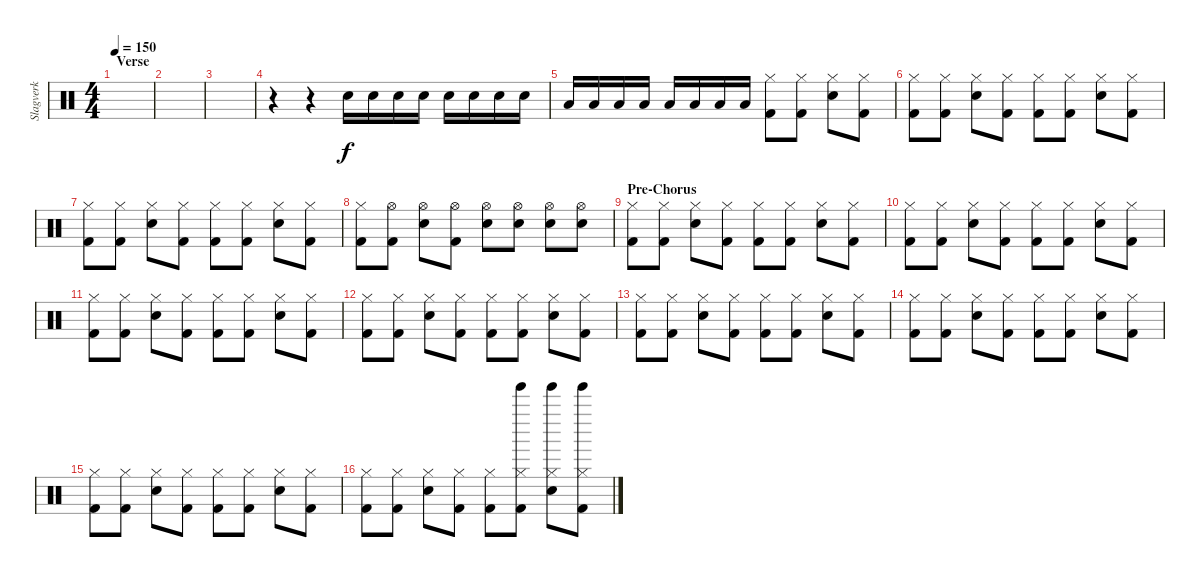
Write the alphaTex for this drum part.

\track ("Slagverk" "Slagverk") {instrument percussion}
\staff {score}
\articulation defaults
\ts (4 4)
\section ("" "Verse")
\tempo 150
\clef neutral
\ks c
|
|
|
r.4 r.4 "Electric Snare (hit)".16 "Electric Snare (hit)".16 "Electric Snare (hit)".16 "Electric Snare (hit)".16 "Electric Snare (hit)".16 "Electric Snare (hit)".16 "Electric Snare (hit)".16 "Electric Snare (hit)".16 |
"Low Tom (hit)".16 "Low Tom (hit)".16 "Low Tom (hit)".16 "Low Tom (hit)".16 "Low Tom (hit)".16 "Low Tom (hit)".16 "Low Tom (hit)".16 "Low Tom (hit)".16 ("Hi-Hat (closed)" "Kick (hit) 2").8 ("Hi-Hat (closed)" "Kick (hit) 2").8 ("Hi-Hat (closed)" "Electric Snare (hit)").8 ("Hi-Hat (closed)" "Kick (hit) 2").8 |
("Hi-Hat (closed)" "Kick (hit) 2").8 ("Hi-Hat (closed)" "Kick (hit) 2").8 ("Hi-Hat (closed)" "Electric Snare (hit)").8 ("Hi-Hat (closed)" "Kick (hit) 2").8 ("Hi-Hat (closed)" "Kick (hit) 2").8 ("Hi-Hat (closed)" "Kick (hit) 2").8 ("Hi-Hat (closed)" "Electric Snare (hit)").8 ("Hi-Hat (closed)" "Kick (hit) 2").8 |
("Hi-Hat (closed)" "Kick (hit) 2").8 ("Hi-Hat (closed)" "Kick (hit) 2").8 ("Hi-Hat (closed)" "Electric Snare (hit)").8 ("Hi-Hat (closed)" "Kick (hit) 2").8 ("Hi-Hat (closed)" "Kick (hit) 2").8 ("Hi-Hat (closed)" "Kick (hit) 2").8 ("Hi-Hat (closed)" "Electric Snare (hit)").8 ("Hi-Hat (closed)" "Kick (hit) 2").8 |
("Hi-Hat (closed)" "Kick (hit) 2").8 ("Hi-Hat (open)" "Kick (hit) 2").8 ("Hi-Hat (open)" "Electric Snare (hit)").8 ("Hi-Hat (open)" "Kick (hit) 2").8 ("Hi-Hat (open)" "Electric Snare (hit)").8 ("Hi-Hat (open)" "Electric Snare (hit)").8 ("Hi-Hat (open)" "Electric Snare (hit)").8 ("Hi-Hat (open)" "Electric Snare (hit)").8 |
\section ("" "Pre-Chorus")
("Hi-Hat (closed)" "Kick (hit) 2").8 ("Hi-Hat (closed)" "Kick (hit) 2").8 ("Hi-Hat (closed)" "Electric Snare (hit)").8 ("Hi-Hat (closed)" "Kick (hit) 2").8 ("Hi-Hat (closed)" "Kick (hit) 2").8 ("Hi-Hat (closed)" "Kick (hit) 2").8 ("Hi-Hat (closed)" "Electric Snare (hit)").8 ("Hi-Hat (closed)" "Kick (hit) 2").8 |
("Hi-Hat (closed)" "Kick (hit) 2").8 ("Hi-Hat (closed)" "Kick (hit) 2").8 ("Hi-Hat (closed)" "Electric Snare (hit)").8 ("Hi-Hat (closed)" "Kick (hit) 2").8 ("Hi-Hat (closed)" "Kick (hit) 2").8 ("Hi-Hat (closed)" "Kick (hit) 2").8 ("Hi-Hat (closed)" "Electric Snare (hit)").8 ("Hi-Hat (closed)" "Kick (hit) 2").8 |
("Hi-Hat (closed)" "Kick (hit) 2").8 ("Hi-Hat (closed)" "Kick (hit) 2").8 ("Hi-Hat (closed)" "Electric Snare (hit)").8 ("Hi-Hat (closed)" "Kick (hit) 2").8 ("Hi-Hat (closed)" "Kick (hit) 2").8 ("Hi-Hat (closed)" "Kick (hit) 2").8 ("Hi-Hat (closed)" "Electric Snare (hit)").8 ("Hi-Hat (closed)" "Kick (hit) 2").8 |
("Hi-Hat (closed)" "Kick (hit) 2").8 ("Hi-Hat (closed)" "Kick (hit) 2").8 ("Hi-Hat (closed)" "Electric Snare (hit)").8 ("Hi-Hat (closed)" "Kick (hit) 2").8 ("Hi-Hat (closed)" "Kick (hit) 2").8 ("Hi-Hat (closed)" "Kick (hit) 2").8 ("Hi-Hat (closed)" "Electric Snare (hit)").8 ("Hi-Hat (closed)" "Kick (hit) 2").8 |
("Hi-Hat (closed)" "Kick (hit) 2").8 ("Hi-Hat (closed)" "Kick (hit) 2").8 ("Hi-Hat (closed)" "Electric Snare (hit)").8 ("Hi-Hat (closed)" "Kick (hit) 2").8 ("Hi-Hat (closed)" "Kick (hit) 2").8 ("Hi-Hat (closed)" "Kick (hit) 2").8 ("Hi-Hat (closed)" "Electric Snare (hit)").8 ("Hi-Hat (closed)" "Kick (hit) 2").8 |
("Hi-Hat (closed)" "Kick (hit) 2").8 ("Hi-Hat (closed)" "Kick (hit) 2").8 ("Hi-Hat (closed)" "Electric Snare (hit)").8 ("Hi-Hat (closed)" "Kick (hit) 2").8 ("Hi-Hat (closed)" "Kick (hit) 2").8 ("Hi-Hat (closed)" "Kick (hit) 2").8 ("Hi-Hat (closed)" "Electric Snare (hit)").8 ("Hi-Hat (closed)" "Kick (hit) 2").8 |
("Hi-Hat (closed)" "Kick (hit) 2").8 ("Hi-Hat (closed)" "Kick (hit) 2").8 ("Hi-Hat (closed)" "Electric Snare (hit)").8 ("Hi-Hat (closed)" "Kick (hit) 2").8 ("Hi-Hat (closed)" "Kick (hit) 2").8 ("Hi-Hat (closed)" "Kick (hit) 2").8 ("Hi-Hat (closed)" "Electric Snare (hit)").8 ("Hi-Hat (closed)" "Kick (hit) 2").8 |
("Hi-Hat (closed)" "Kick (hit) 2").8 ("Hi-Hat (closed)" "Kick (hit) 2").8 ("Hi-Hat (closed)" "Electric Snare (hit)").8 ("Hi-Hat (closed)" "Kick (hit) 2").8 ("Hi-Hat (closed)" "Kick (hit) 2").8 ("Tinkle Bell (hit)" "Hi-Hat (closed)" "Kick (hit) 2").8 ("Tinkle Bell (hit)" "Hi-Hat (closed)" "Electric Snare (hit)").8 ("Tinkle Bell (hit)" "Hi-Hat (closed)" "Kick (hit) 2").8
